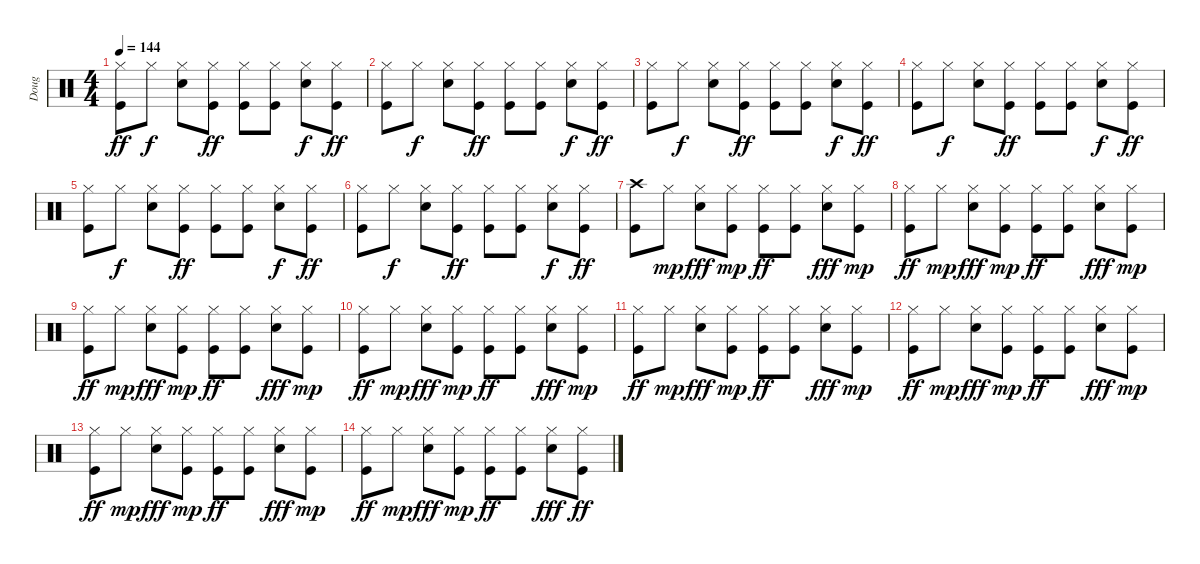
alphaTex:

\track ("Doug" "Doug") {instrument percussion}
\staff {score}
\articulation defaults
\ts (4 4)
\tempo 144
\clef neutral
\ks c
("Hi-Hat (closed)" "Kick (hit)").8{dy ff} "Hi-Hat (closed)".8{dy f} ("Hi-Hat (closed)" "Electric Snare (hit)").8 ("Hi-Hat (closed)" "Kick (hit)").8{dy ff} ("Hi-Hat (closed)" "Kick (hit)").8 ("Hi-Hat (closed)" "Kick (hit)").8 ("Hi-Hat (closed)" "Electric Snare (hit)").8{dy f} ("Hi-Hat (closed)" "Kick (hit)").8{dy ff} |
("Hi-Hat (closed)" "Kick (hit)").8 "Hi-Hat (closed)".8{dy f} ("Hi-Hat (closed)" "Electric Snare (hit)").8 ("Hi-Hat (closed)" "Kick (hit)").8{dy ff} ("Hi-Hat (closed)" "Kick (hit)").8 ("Hi-Hat (closed)" "Kick (hit)").8 ("Hi-Hat (closed)" "Electric Snare (hit)").8{dy f} ("Hi-Hat (closed)" "Kick (hit)").8{dy ff} |
("Hi-Hat (closed)" "Kick (hit)").8 "Hi-Hat (closed)".8{dy f} ("Hi-Hat (closed)" "Electric Snare (hit)").8 ("Hi-Hat (closed)" "Kick (hit)").8{dy ff} ("Hi-Hat (closed)" "Kick (hit)").8 ("Hi-Hat (closed)" "Kick (hit)").8 ("Hi-Hat (closed)" "Electric Snare (hit)").8{dy f} ("Hi-Hat (closed)" "Kick (hit)").8{dy ff} |
("Hi-Hat (closed)" "Kick (hit)").8 "Hi-Hat (closed)".8{dy f} ("Hi-Hat (closed)" "Electric Snare (hit)").8 ("Hi-Hat (closed)" "Kick (hit)").8{dy ff} ("Hi-Hat (closed)" "Kick (hit)").8 ("Hi-Hat (closed)" "Kick (hit)").8 ("Hi-Hat (closed)" "Electric Snare (hit)").8{dy f} ("Hi-Hat (closed)" "Kick (hit)").8{dy ff} |
("Hi-Hat (closed)" "Kick (hit)").8 "Hi-Hat (closed)".8{dy f} ("Hi-Hat (closed)" "Electric Snare (hit)").8 ("Hi-Hat (closed)" "Kick (hit)").8{dy ff} ("Hi-Hat (closed)" "Kick (hit)").8 ("Hi-Hat (closed)" "Kick (hit)").8 ("Hi-Hat (closed)" "Electric Snare (hit)").8{dy f} ("Hi-Hat (closed)" "Kick (hit)").8{dy ff} |
("Hi-Hat (closed)" "Kick (hit)").8 "Hi-Hat (closed)".8{dy f} ("Hi-Hat (closed)" "Electric Snare (hit)").8 ("Hi-Hat (closed)" "Kick (hit)").8{dy ff} ("Hi-Hat (closed)" "Kick (hit)").8 ("Hi-Hat (closed)" "Kick (hit)").8 ("Hi-Hat (closed)" "Electric Snare (hit)").8{dy f} ("Hi-Hat (closed)" "Kick (hit)").8{dy ff} |
("Kick (hit)" "Crash high (hit)").8 "Hi-Hat (closed)".8{dy mp} ("Hi-Hat (closed)" "Electric Snare (hit)").8{dy fff} ("Hi-Hat (closed)" "Kick (hit)").8{dy mp} ("Hi-Hat (closed)" "Kick (hit)").8{dy ff} ("Hi-Hat (closed)" "Kick (hit)").8 ("Hi-Hat (closed)" "Electric Snare (hit)").8{dy fff} ("Hi-Hat (closed)" "Kick (hit)").8{dy mp} |
("Hi-Hat (closed)" "Kick (hit)").8{dy ff} "Hi-Hat (closed)".8{dy mp} ("Hi-Hat (closed)" "Electric Snare (hit)").8{dy fff} ("Hi-Hat (closed)" "Kick (hit)").8{dy mp} ("Hi-Hat (closed)" "Kick (hit)").8{dy ff} ("Hi-Hat (closed)" "Kick (hit)").8 ("Hi-Hat (closed)" "Electric Snare (hit)").8{dy fff} ("Hi-Hat (closed)" "Kick (hit)").8{dy mp} |
("Hi-Hat (closed)" "Kick (hit)").8{dy ff} "Hi-Hat (closed)".8{dy mp} ("Hi-Hat (closed)" "Electric Snare (hit)").8{dy fff} ("Hi-Hat (closed)" "Kick (hit)").8{dy mp} ("Hi-Hat (closed)" "Kick (hit)").8{dy ff} ("Hi-Hat (closed)" "Kick (hit)").8 ("Hi-Hat (closed)" "Electric Snare (hit)").8{dy fff} ("Hi-Hat (closed)" "Kick (hit)").8{dy mp} |
("Hi-Hat (closed)" "Kick (hit)").8{dy ff} "Hi-Hat (closed)".8{dy mp} ("Hi-Hat (closed)" "Electric Snare (hit)").8{dy fff} ("Hi-Hat (closed)" "Kick (hit)").8{dy mp} ("Hi-Hat (closed)" "Kick (hit)").8{dy ff} ("Hi-Hat (closed)" "Kick (hit)").8 ("Hi-Hat (closed)" "Electric Snare (hit)").8{dy fff} ("Hi-Hat (closed)" "Kick (hit)").8{dy mp} |
("Hi-Hat (closed)" "Kick (hit)").8{dy ff} "Hi-Hat (closed)".8{dy mp} ("Hi-Hat (closed)" "Electric Snare (hit)").8{dy fff} ("Hi-Hat (closed)" "Kick (hit)").8{dy mp} ("Hi-Hat (closed)" "Kick (hit)").8{dy ff} ("Hi-Hat (closed)" "Kick (hit)").8 ("Hi-Hat (closed)" "Electric Snare (hit)").8{dy fff} ("Hi-Hat (closed)" "Kick (hit)").8{dy mp} |
("Hi-Hat (closed)" "Kick (hit)").8{dy ff} "Hi-Hat (closed)".8{dy mp} ("Hi-Hat (closed)" "Electric Snare (hit)").8{dy fff} ("Hi-Hat (closed)" "Kick (hit)").8{dy mp} ("Hi-Hat (closed)" "Kick (hit)").8{dy ff} ("Hi-Hat (closed)" "Kick (hit)").8 ("Hi-Hat (closed)" "Electric Snare (hit)").8{dy fff} ("Hi-Hat (closed)" "Kick (hit)").8{dy mp} |
("Hi-Hat (closed)" "Kick (hit)").8{dy ff} "Hi-Hat (closed)".8{dy mp} ("Hi-Hat (closed)" "Electric Snare (hit)").8{dy fff} ("Hi-Hat (closed)" "Kick (hit)").8{dy mp} ("Hi-Hat (closed)" "Kick (hit)").8{dy ff} ("Hi-Hat (closed)" "Kick (hit)").8 ("Hi-Hat (closed)" "Electric Snare (hit)").8{dy fff} ("Hi-Hat (closed)" "Kick (hit)").8{dy mp} |
("Hi-Hat (closed)" "Kick (hit)").8{dy ff} "Hi-Hat (closed)".8{dy mp} ("Hi-Hat (closed)" "Electric Snare (hit)").8{dy fff} ("Hi-Hat (closed)" "Kick (hit)").8{dy mp} ("Hi-Hat (closed)" "Kick (hit)").8{dy ff} ("Hi-Hat (closed)" "Kick (hit)").8 ("Hi-Hat (closed)" "Electric Snare (hit)").8{dy fff} ("Hi-Hat (closed)" "Kick (hit)").8{dy ff}
